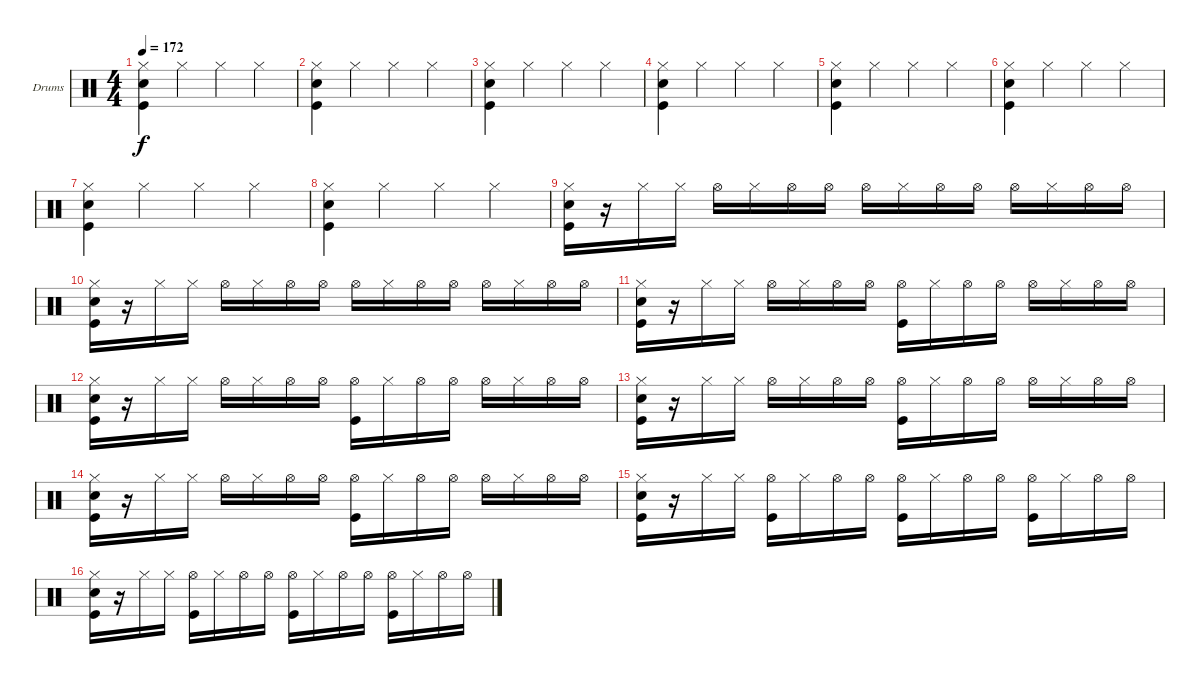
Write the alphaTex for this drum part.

\bracketExtendMode groupsimilarinstruments
\firstSystemTrackNameOrientation horizontal
\otherSystemsTrackNameOrientation horizontal
\track ("Drumkit" "Drums") {instrument percussion}
\staff {score}
\articulation defaults
\ts (4 4)
\tempo 172
\clef neutral
\ks c
("Hi-Hat (closed)" "Snare (hit) 2" "Kick (hit)").4{dy f} "Hi-Hat (closed)".4 "Hi-Hat (closed)".4 "Hi-Hat (closed)".4 |
("Hi-Hat (closed)" "Snare (hit) 2" "Kick (hit)").4 "Hi-Hat (closed)".4 "Hi-Hat (closed)".4 "Hi-Hat (closed)".4 |
("Hi-Hat (closed)" "Snare (hit) 2" "Kick (hit)").4 "Hi-Hat (closed)".4 "Hi-Hat (closed)".4 "Hi-Hat (closed)".4 |
("Hi-Hat (closed)" "Snare (hit) 2" "Kick (hit)").4 "Hi-Hat (closed)".4 "Hi-Hat (closed)".4 "Hi-Hat (closed)".4 |
("Hi-Hat (closed)" "Snare (hit) 2" "Kick (hit)").4 "Hi-Hat (closed)".4 "Hi-Hat (closed)".4 "Hi-Hat (closed)".4 |
("Hi-Hat (closed)" "Snare (hit) 2" "Kick (hit)").4 "Hi-Hat (closed)".4 "Hi-Hat (closed)".4 "Hi-Hat (closed)".4 |
("Hi-Hat (closed)" "Snare (hit) 2" "Kick (hit)").4 "Hi-Hat (closed)".4 "Hi-Hat (closed)".4 "Hi-Hat (closed)".4 |
("Hi-Hat (closed)" "Snare (hit) 2" "Kick (hit)").4 "Hi-Hat (closed)".4 "Hi-Hat (closed)".4 "Hi-Hat (closed)".4 |
("Hi-Hat (closed)" "Snare (hit) 2" "Kick (hit)").16 r.16 "Hi-Hat (closed)".16 "Hi-Hat (closed)".16 "Hi-Hat (open)".16 "Hi-Hat (closed)".16 "Hi-Hat (open)".16 "Hi-Hat (open)".16 "Hi-Hat (open)".16 "Hi-Hat (closed)".16 "Hi-Hat (open)".16 "Hi-Hat (open)".16 "Hi-Hat (open)".16 "Hi-Hat (closed)".16 "Hi-Hat (open)".16 "Hi-Hat (open)".16 |
("Hi-Hat (closed)" "Snare (hit) 2" "Kick (hit)").16 r.16 "Hi-Hat (closed)".16 "Hi-Hat (closed)".16 "Hi-Hat (open)".16 "Hi-Hat (closed)".16 "Hi-Hat (open)".16 "Hi-Hat (open)".16 "Hi-Hat (open)".16 "Hi-Hat (closed)".16 "Hi-Hat (open)".16 "Hi-Hat (open)".16 "Hi-Hat (open)".16 "Hi-Hat (closed)".16 "Hi-Hat (open)".16 "Hi-Hat (open)".16 |
("Hi-Hat (closed)" "Snare (hit) 2" "Kick (hit)").16 r.16 "Hi-Hat (closed)".16 "Hi-Hat (closed)".16 "Hi-Hat (open)".16 "Hi-Hat (closed)".16 "Hi-Hat (open)".16 "Hi-Hat (open)".16 ("Kick (hit)" "Hi-Hat (open)").16 "Hi-Hat (closed)".16 "Hi-Hat (open)".16 "Hi-Hat (open)".16 "Hi-Hat (open)".16 "Hi-Hat (closed)".16 "Hi-Hat (open)".16 "Hi-Hat (open)".16 |
("Hi-Hat (closed)" "Snare (hit) 2" "Kick (hit)").16 r.16 "Hi-Hat (closed)".16 "Hi-Hat (closed)".16 "Hi-Hat (open)".16 "Hi-Hat (closed)".16 "Hi-Hat (open)".16 "Hi-Hat (open)".16 ("Kick (hit)" "Hi-Hat (open)").16 "Hi-Hat (closed)".16 "Hi-Hat (open)".16 "Hi-Hat (open)".16 "Hi-Hat (open)".16 "Hi-Hat (closed)".16 "Hi-Hat (open)".16 "Hi-Hat (open)".16 |
("Hi-Hat (closed)" "Snare (hit) 2" "Kick (hit)").16 r.16 "Hi-Hat (closed)".16 "Hi-Hat (closed)".16 "Hi-Hat (open)".16 "Hi-Hat (closed)".16 "Hi-Hat (open)".16 "Hi-Hat (open)".16 ("Kick (hit)" "Hi-Hat (open)").16 "Hi-Hat (closed)".16 "Hi-Hat (open)".16 "Hi-Hat (open)".16 "Hi-Hat (open)".16 "Hi-Hat (closed)".16 "Hi-Hat (open)".16 "Hi-Hat (open)".16 |
("Hi-Hat (closed)" "Snare (hit) 2" "Kick (hit)").16 r.16 "Hi-Hat (closed)".16 "Hi-Hat (closed)".16 "Hi-Hat (open)".16 "Hi-Hat (closed)".16 "Hi-Hat (open)".16 "Hi-Hat (open)".16 ("Kick (hit)" "Hi-Hat (open)").16 "Hi-Hat (closed)".16 "Hi-Hat (open)".16 "Hi-Hat (open)".16 "Hi-Hat (open)".16 "Hi-Hat (closed)".16 "Hi-Hat (open)".16 "Hi-Hat (open)".16 |
("Hi-Hat (closed)" "Snare (hit) 2" "Kick (hit)").16 r.16 "Hi-Hat (closed)".16 "Hi-Hat (closed)".16 ("Kick (hit)" "Hi-Hat (open)").16 "Hi-Hat (closed)".16 "Hi-Hat (open)".16 "Hi-Hat (open)".16 ("Kick (hit)" "Hi-Hat (open)").16 "Hi-Hat (closed)".16 "Hi-Hat (open)".16 "Hi-Hat (open)".16 ("Kick (hit)" "Hi-Hat (open)").16 "Hi-Hat (closed)".16 "Hi-Hat (open)".16 "Hi-Hat (open)".16 |
("Hi-Hat (closed)" "Snare (hit) 2" "Kick (hit)").16 r.16 "Hi-Hat (closed)".16 "Hi-Hat (closed)".16 ("Kick (hit)" "Hi-Hat (open)").16 "Hi-Hat (closed)".16 "Hi-Hat (open)".16 "Hi-Hat (open)".16 ("Kick (hit)" "Hi-Hat (open)").16 "Hi-Hat (closed)".16 "Hi-Hat (open)".16 "Hi-Hat (open)".16 ("Kick (hit)" "Hi-Hat (open)").16 "Hi-Hat (closed)".16 "Hi-Hat (open)".16 "Hi-Hat (open)".16
